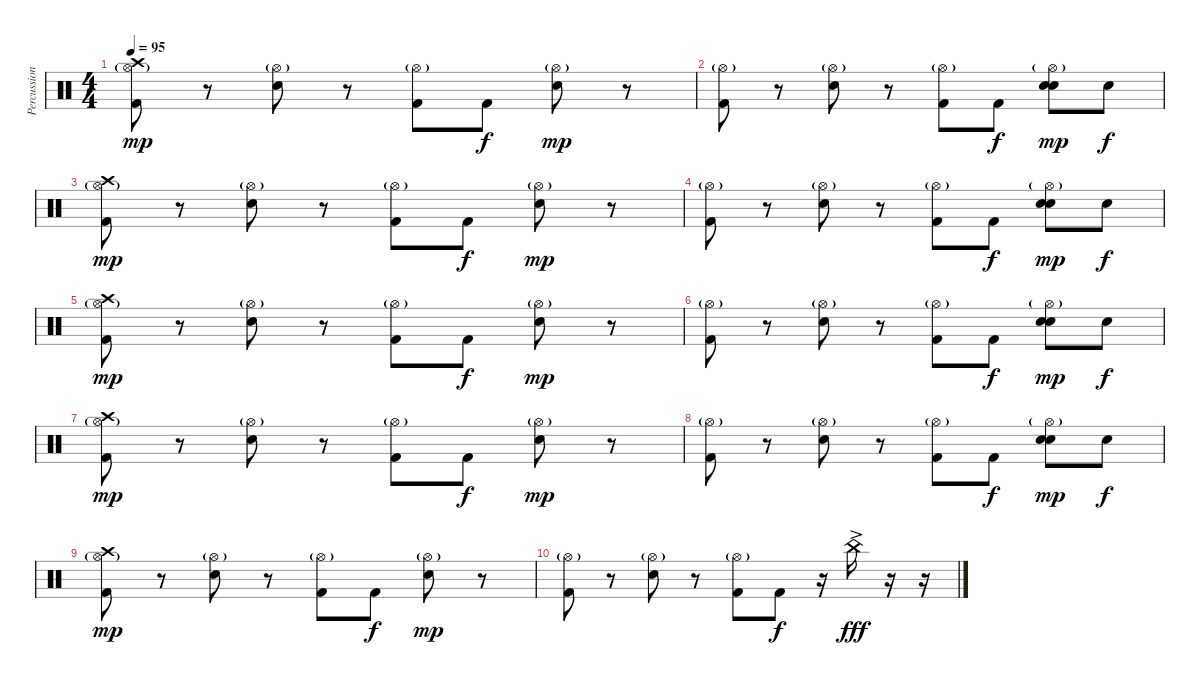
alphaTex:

\track ("Percussions" "Percussion") {instrument percussion}
\staff {score}
\articulation defaults
\ts (4 4)
\tempo 95
\clef neutral
\ks c
("Hi-Hat (open)"{g} "Crash high (hit)" "Kick (hit) 2").8{dy mp} r.8 ("Hi-Hat (open)"{g} "Snare (hit) 2").8 r.8 ("Hi-Hat (open)"{g} "Kick (hit) 2").8 "Kick (hit) 2".8{dy f} ("Hi-Hat (open)"{g} "Snare (hit) 2").8{dy mp} r.8 |
("Hi-Hat (open)"{g} "Kick (hit) 2").8 r.8 ("Hi-Hat (open)"{g} "Snare (hit) 2").8 r.8 ("Hi-Hat (open)"{g} "Kick (hit) 2").8 "Kick (hit) 2".8{dy f} ("Hi-Hat (open)"{g} "Snare (hit) 2" "Snare (hit) 2").8{dy mp} "Snare (hit) 2".8{dy f} |
("Hi-Hat (open)"{g} "Crash high (hit)" "Kick (hit) 2").8{dy mp} r.8 ("Hi-Hat (open)"{g} "Snare (hit) 2").8 r.8 ("Hi-Hat (open)"{g} "Kick (hit) 2").8 "Kick (hit) 2".8{dy f} ("Hi-Hat (open)"{g} "Snare (hit) 2").8{dy mp} r.8 |
("Hi-Hat (open)"{g} "Kick (hit) 2").8 r.8 ("Hi-Hat (open)"{g} "Snare (hit) 2").8 r.8 ("Hi-Hat (open)"{g} "Kick (hit) 2").8 "Kick (hit) 2".8{dy f} ("Hi-Hat (open)"{g} "Snare (hit) 2" "Snare (hit) 2").8{dy mp} "Snare (hit) 2".8{dy f} |
("Hi-Hat (open)"{g} "Crash high (hit)" "Kick (hit) 2").8{dy mp} r.8 ("Hi-Hat (open)"{g} "Snare (hit) 2").8 r.8 ("Hi-Hat (open)"{g} "Kick (hit) 2").8 "Kick (hit) 2".8{dy f} ("Hi-Hat (open)"{g} "Snare (hit) 2").8{dy mp} r.8 |
("Hi-Hat (open)"{g} "Kick (hit) 2").8 r.8 ("Hi-Hat (open)"{g} "Snare (hit) 2").8 r.8 ("Hi-Hat (open)"{g} "Kick (hit) 2").8 "Kick (hit) 2".8{dy f} ("Hi-Hat (open)"{g} "Snare (hit) 2" "Snare (hit) 2").8{dy mp} "Snare (hit) 2".8{dy f} |
("Hi-Hat (open)"{g} "Crash high (hit)" "Kick (hit) 2").8{dy mp} r.8 ("Hi-Hat (open)"{g} "Snare (hit) 2").8 r.8 ("Hi-Hat (open)"{g} "Kick (hit) 2").8 "Kick (hit) 2".8{dy f} ("Hi-Hat (open)"{g} "Snare (hit) 2").8{dy mp} r.8 |
("Hi-Hat (open)"{g} "Kick (hit) 2").8 r.8 ("Hi-Hat (open)"{g} "Snare (hit) 2").8 r.8 ("Hi-Hat (open)"{g} "Kick (hit) 2").8 "Kick (hit) 2".8{dy f} ("Hi-Hat (open)"{g} "Snare (hit) 2" "Snare (hit) 2").8{dy mp} "Snare (hit) 2".8{dy f} |
("Hi-Hat (open)"{g} "Crash high (hit)" "Kick (hit) 2").8{dy mp} r.8 ("Hi-Hat (open)"{g} "Snare (hit) 2").8 r.8 ("Hi-Hat (open)"{g} "Kick (hit) 2").8 "Kick (hit) 2".8{dy f} ("Hi-Hat (open)"{g} "Snare (hit) 2").8{dy mp} r.8 |
("Hi-Hat (open)"{g} "Kick (hit) 2").8 r.8 ("Hi-Hat (open)"{g} "Snare (hit) 2").8 r.8 ("Hi-Hat (open)"{g} "Kick (hit) 2").8 "Kick (hit) 2".8{dy f} r.16 "China (hit)"{ac}.16{dy fff} r.16 r.16
